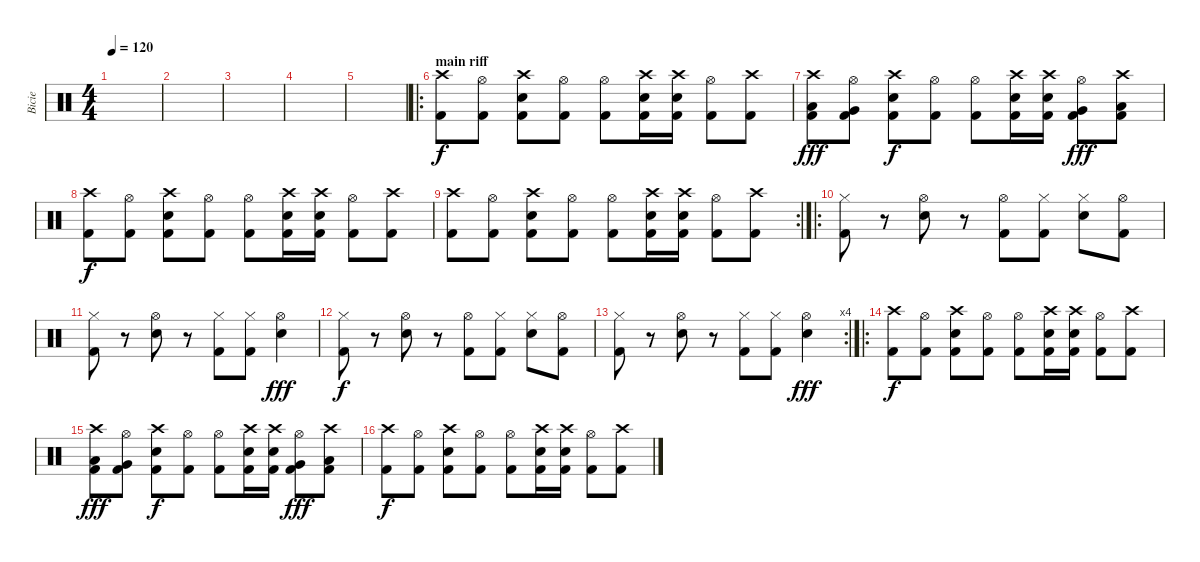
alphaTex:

\track ("Bicie" "Bicie") {instrument percussion}
\staff {score}
\articulation defaults
\ts (4 4)
\tempo 120
\clef neutral
\ks c
|
|
|
|
|
\ro
\section ("" "main riff")
("Crash high (hit)" "Kick (hit) 2").8 ("Hi-Hat (open)" "Kick (hit) 2").8 ("Crash high (hit)" "Snare (hit) 2" "Kick (hit) 2").8 ("Hi-Hat (open)" "Kick (hit) 2").8 ("Hi-Hat (open)" "Kick (hit) 2").8 ("Crash high (hit)" "Snare (hit) 2" "Kick (hit) 2").16 ("Crash high (hit)" "Snare (hit) 2" "Kick (hit) 2").16 ("Hi-Hat (open)" "Kick (hit) 2").8 ("Crash high (hit)" "Kick (hit) 2").8 |
("Crash high (hit)" "Low Tom (hit)" "Kick (hit) 2").8{dy fff} ("Hi-Hat (open)" "Very Low Tom (hit)" "Kick (hit) 2").8 ("Crash high (hit)" "Snare (hit) 2" "Kick (hit) 2").8{dy f} ("Hi-Hat (open)" "Kick (hit) 2").8 ("Hi-Hat (open)" "Kick (hit) 2").8 ("Crash high (hit)" "Snare (hit) 2" "Kick (hit) 2").16 ("Crash high (hit)" "Snare (hit) 2" "Kick (hit) 2").16 ("Hi-Hat (open)" "Very Low Tom (hit)" "Kick (hit) 2").8{dy fff} ("Crash high (hit)" "Low Floor Tom (hit)" "Kick (hit) 2").8 |
("Crash high (hit)" "Kick (hit) 2").8{dy f} ("Hi-Hat (open)" "Kick (hit) 2").8 ("Crash high (hit)" "Snare (hit) 2" "Kick (hit) 2").8 ("Hi-Hat (open)" "Kick (hit) 2").8 ("Hi-Hat (open)" "Kick (hit) 2").8 ("Crash high (hit)" "Snare (hit) 2" "Kick (hit) 2").16 ("Crash high (hit)" "Snare (hit) 2" "Kick (hit) 2").16 ("Hi-Hat (open)" "Kick (hit) 2").8 ("Crash high (hit)" "Kick (hit) 2").8 |
\rc 2
("Crash high (hit)" "Kick (hit) 2").8 ("Hi-Hat (open)" "Kick (hit) 2").8 ("Crash high (hit)" "Snare (hit) 2" "Kick (hit) 2").8 ("Hi-Hat (open)" "Kick (hit) 2").8 ("Hi-Hat (open)" "Kick (hit) 2").8 ("Crash high (hit)" "Snare (hit) 2" "Kick (hit) 2").16 ("Crash high (hit)" "Snare (hit) 2" "Kick (hit) 2").16 ("Hi-Hat (open)" "Kick (hit) 2").8 ("Crash high (hit)" "Kick (hit) 2").8 |
\ro
("Hi-Hat (closed)" "Kick (hit) 2").8 r.8 ("Hi-Hat (open)" "Snare (hit) 2").8 r.8 ("Hi-Hat (open)" "Kick (hit) 2").8 ("Hi-Hat (closed)" "Kick (hit) 2").8 ("Hi-Hat (closed)" "Snare (hit) 2").8 ("Hi-Hat (open)" "Kick (hit) 2").8 |
("Hi-Hat (closed)" "Kick (hit) 2").8 r.8 ("Hi-Hat (open)" "Snare (hit) 2").8 r.8 ("Hi-Hat (closed)" "Kick (hit) 2").8 ("Hi-Hat (closed)" "Kick (hit) 2").8 ("Hi-Hat (open)" "Snare (hit) 2").4{dy fff} |
("Hi-Hat (closed)" "Kick (hit) 2").8{dy f} r.8 ("Hi-Hat (open)" "Snare (hit) 2").8 r.8 ("Hi-Hat (open)" "Kick (hit) 2").8 ("Hi-Hat (closed)" "Kick (hit) 2").8 ("Hi-Hat (closed)" "Snare (hit) 2").8 ("Hi-Hat (open)" "Kick (hit) 2").8 |
\rc 4
("Hi-Hat (closed)" "Kick (hit) 2").8 r.8 ("Hi-Hat (open)" "Snare (hit) 2").8 r.8 ("Hi-Hat (closed)" "Kick (hit) 2").8 ("Hi-Hat (closed)" "Kick (hit) 2").8 ("Hi-Hat (open)" "Snare (hit) 2").4{dy fff} |
\ro
("Crash high (hit)" "Kick (hit) 2").8{dy f} ("Hi-Hat (open)" "Kick (hit) 2").8 ("Crash high (hit)" "Snare (hit) 2" "Kick (hit) 2").8 ("Hi-Hat (open)" "Kick (hit) 2").8 ("Hi-Hat (open)" "Kick (hit) 2").8 ("Crash high (hit)" "Snare (hit) 2" "Kick (hit) 2").16 ("Crash high (hit)" "Snare (hit) 2" "Kick (hit) 2").16 ("Hi-Hat (open)" "Kick (hit) 2").8 ("Crash high (hit)" "Kick (hit) 2").8 |
("Crash high (hit)" "Low Tom (hit)" "Kick (hit) 2").8{dy fff} ("Hi-Hat (open)" "Very Low Tom (hit)" "Kick (hit) 2").8 ("Crash high (hit)" "Snare (hit) 2" "Kick (hit) 2").8{dy f} ("Hi-Hat (open)" "Kick (hit) 2").8 ("Hi-Hat (open)" "Kick (hit) 2").8 ("Crash high (hit)" "Snare (hit) 2" "Kick (hit) 2").16 ("Crash high (hit)" "Snare (hit) 2" "Kick (hit) 2").16 ("Hi-Hat (open)" "Very Low Tom (hit)" "Kick (hit) 2").8{dy fff} ("Crash high (hit)" "Low Floor Tom (hit)" "Kick (hit) 2").8 |
("Crash high (hit)" "Kick (hit) 2").8{dy f} ("Hi-Hat (open)" "Kick (hit) 2").8 ("Crash high (hit)" "Snare (hit) 2" "Kick (hit) 2").8 ("Hi-Hat (open)" "Kick (hit) 2").8 ("Hi-Hat (open)" "Kick (hit) 2").8 ("Crash high (hit)" "Snare (hit) 2" "Kick (hit) 2").16 ("Crash high (hit)" "Snare (hit) 2" "Kick (hit) 2").16 ("Hi-Hat (open)" "Kick (hit) 2").8 ("Crash high (hit)" "Kick (hit) 2").8
